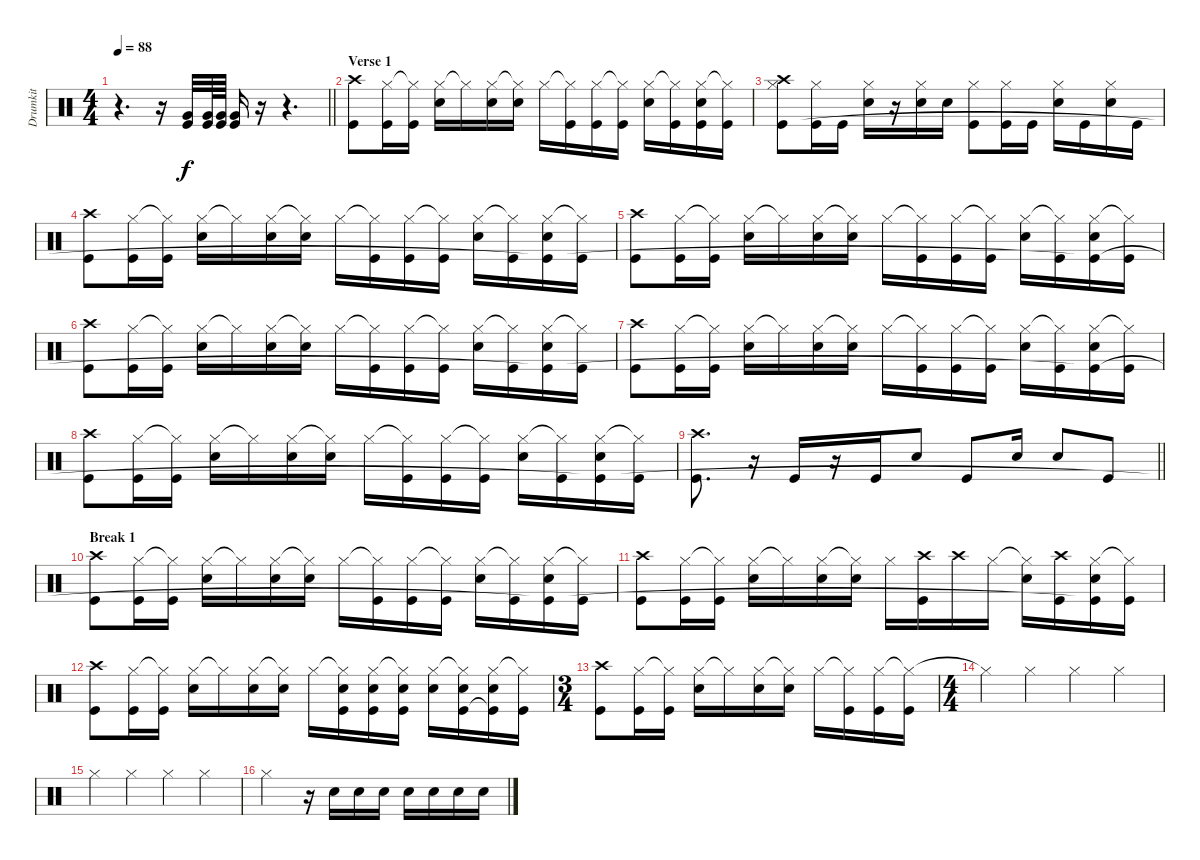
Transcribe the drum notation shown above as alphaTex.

\track ("Drumkit" "Drumkit") {instrument percussion}
\staff {score}
\articulation defaults
\ts (4 4)
\tempo 88
\clef neutral
\barLineRight lightlight
\ks c
r.4{d dy f} r.16 ("Very Low Tom (hit)" "Kick (hit)").32 ("Very Low Tom (hit)" "Kick (hit)").64 ("Very Low Tom (hit)" "Kick (hit)").64 ("Very Low Tom (hit)" "Kick (hit)").16 r.16 r.4{d} |
\section ("" "Verse 1")
("Crash high (hit)" "Kick (hit)").8 ("Hi-Hat (closed)" "Kick (hit)").16 ("Hi-Hat (closed)"{t} "Kick (hit)").16 ("Hi-Hat (closed)" "Snare (hit) 2").16 "Hi-Hat (closed)"{t}.16 ("Hi-Hat (closed)" "Snare (hit) 2").16 ("Hi-Hat (closed)"{t} "Snare (hit) 2").16 "Hi-Hat (closed)".16 ("Hi-Hat (closed)"{t} "Kick (hit)").16 ("Hi-Hat (closed)" "Kick (hit)").16 ("Hi-Hat (closed)"{t} "Kick (hit)").16 ("Hi-Hat (closed)" "Snare (hit) 2").16 ("Hi-Hat (closed)"{t} "Kick (hit)").16 ("Hi-Hat (closed)" "Snare (hit) 2" "Kick (hit)").16 ("Hi-Hat (closed)"{t} "Kick (hit)").16 |
("Hi-Hat (closed)" "Crash high (hit)" "Kick (hit)").8 ("Hi-Hat (closed)" "Kick (hit)").16 "Kick (hit)".16 ("Hi-Hat (closed)" "Snare (hit) 2").16 r.16 ("Hi-Hat (closed)" "Snare (hit) 2").16 "Snare (hit) 2".16 ("Hi-Hat (closed)" "Kick (hit)").8 ("Hi-Hat (closed)" "Kick (hit)").16 "Kick (hit)".16 ("Hi-Hat (closed)" "Snare (hit) 2").16 "Kick (hit)".16 ("Hi-Hat (closed)" "Snare (hit) 2").16 "Kick (hit)".16 |
("Crash high (hit)" "Kick (hit)").8 ("Hi-Hat (closed)" "Kick (hit)").16 ("Hi-Hat (closed)"{t} "Kick (hit)").16 ("Hi-Hat (closed)" "Snare (hit) 2").16 "Hi-Hat (closed)"{t}.16 ("Hi-Hat (closed)" "Snare (hit) 2").16 ("Hi-Hat (closed)"{t} "Snare (hit) 2").16 "Hi-Hat (closed)".16 ("Hi-Hat (closed)"{t} "Kick (hit)").16 ("Hi-Hat (closed)" "Kick (hit)").16 ("Hi-Hat (closed)"{t} "Kick (hit)").16 ("Hi-Hat (closed)" "Snare (hit) 2").16 ("Hi-Hat (closed)"{t} "Kick (hit)").16 ("Hi-Hat (closed)" "Snare (hit) 2" "Kick (hit)"{t}).16 ("Hi-Hat (closed)"{t} "Kick (hit)").16 |
("Crash high (hit)" "Kick (hit)").8 ("Hi-Hat (closed)" "Kick (hit)").16 ("Hi-Hat (closed)"{t} "Kick (hit)").16 ("Hi-Hat (closed)" "Snare (hit) 2").16 "Hi-Hat (closed)"{t}.16 ("Hi-Hat (closed)" "Snare (hit) 2").16 ("Hi-Hat (closed)"{t} "Snare (hit) 2").16 "Hi-Hat (closed)".16 ("Hi-Hat (closed)"{t} "Kick (hit)").16 ("Hi-Hat (closed)" "Kick (hit)").16 ("Hi-Hat (closed)"{t} "Kick (hit)").16 ("Hi-Hat (closed)" "Snare (hit) 2").16 ("Hi-Hat (closed)"{t} "Kick (hit)").16 ("Hi-Hat (closed)" "Snare (hit) 2" "Kick (hit)"{t}).16 ("Hi-Hat (closed)"{t} "Kick (hit)").16 |
("Crash high (hit)" "Kick (hit)").8 ("Hi-Hat (closed)" "Kick (hit)").16 ("Hi-Hat (closed)"{t} "Kick (hit)").16 ("Hi-Hat (closed)" "Snare (hit) 2").16 "Hi-Hat (closed)"{t}.16 ("Hi-Hat (closed)" "Snare (hit) 2").16 ("Hi-Hat (closed)"{t} "Snare (hit) 2").16 "Hi-Hat (closed)".16 ("Hi-Hat (closed)"{t} "Kick (hit)").16 ("Hi-Hat (closed)" "Kick (hit)").16 ("Hi-Hat (closed)"{t} "Kick (hit)").16 ("Hi-Hat (closed)" "Snare (hit) 2").16 ("Hi-Hat (closed)"{t} "Kick (hit)").16 ("Hi-Hat (closed)" "Snare (hit) 2" "Kick (hit)"{t}).16 ("Hi-Hat (closed)"{t} "Kick (hit)").16 |
("Crash high (hit)" "Kick (hit)").8 ("Hi-Hat (closed)" "Kick (hit)").16 ("Hi-Hat (closed)"{t} "Kick (hit)").16 ("Hi-Hat (closed)" "Snare (hit) 2").16 "Hi-Hat (closed)"{t}.16 ("Hi-Hat (closed)" "Snare (hit) 2").16 ("Hi-Hat (closed)"{t} "Snare (hit) 2").16 "Hi-Hat (closed)".16 ("Hi-Hat (closed)"{t} "Kick (hit)").16 ("Hi-Hat (closed)" "Kick (hit)").16 ("Hi-Hat (closed)"{t} "Kick (hit)").16 ("Hi-Hat (closed)" "Snare (hit) 2").16 ("Hi-Hat (closed)"{t} "Kick (hit)").16 ("Hi-Hat (closed)" "Snare (hit) 2" "Kick (hit)"{t}).16 ("Hi-Hat (closed)"{t} "Kick (hit)").16 |
("Crash high (hit)" "Kick (hit)").8 ("Hi-Hat (closed)" "Kick (hit)").16 ("Hi-Hat (closed)"{t} "Kick (hit)").16 ("Hi-Hat (closed)" "Snare (hit) 2").16 "Hi-Hat (closed)"{t}.16 ("Hi-Hat (closed)" "Snare (hit) 2").16 ("Hi-Hat (closed)"{t} "Snare (hit) 2").16 "Hi-Hat (closed)".16 ("Hi-Hat (closed)"{t} "Kick (hit)").16 ("Hi-Hat (closed)" "Kick (hit)").16 ("Hi-Hat (closed)"{t} "Kick (hit)").16 ("Hi-Hat (closed)" "Snare (hit) 2").16 ("Hi-Hat (closed)"{t} "Kick (hit)").16 ("Hi-Hat (closed)" "Snare (hit) 2" "Kick (hit)"{t}).16 ("Hi-Hat (closed)"{t} "Kick (hit)").16 |
\barLineRight lightlight
("Crash high (hit)" "Kick (hit)").8{d} r.16 "Kick (hit)".16 r.16 "Kick (hit)".16 "Snare (hit) 2".8 "Kick (hit)".8 "Snare (hit) 2".16 "Snare (hit) 2".8 "Kick (hit)".8 |
\section ("" "Break 1")
("Crash high (hit)" "Kick (hit)").8 ("Hi-Hat (closed)" "Kick (hit)").16 ("Hi-Hat (closed)"{t} "Kick (hit)").16 ("Hi-Hat (closed)" "Snare (hit) 2").16 "Hi-Hat (closed)"{t}.16 ("Hi-Hat (closed)" "Snare (hit) 2").16 ("Hi-Hat (closed)"{t} "Snare (hit) 2").16 "Hi-Hat (closed)".16 ("Hi-Hat (closed)"{t} "Kick (hit)").16 ("Hi-Hat (closed)" "Kick (hit)").16 ("Hi-Hat (closed)"{t} "Kick (hit)").16 ("Hi-Hat (closed)" "Snare (hit) 2").16 ("Hi-Hat (closed)"{t} "Kick (hit)").16 ("Hi-Hat (closed)" "Snare (hit) 2" "Kick (hit)"{t}).16 ("Hi-Hat (closed)"{t} "Kick (hit)").16 |
("Crash high (hit)" "Kick (hit)").8 ("Hi-Hat (closed)" "Kick (hit)").16 ("Hi-Hat (closed)"{t} "Kick (hit)").16 ("Hi-Hat (closed)" "Snare (hit) 2").16 "Hi-Hat (closed)"{t}.16 ("Hi-Hat (closed)" "Snare (hit) 2").16 ("Hi-Hat (closed)"{t} "Snare (hit) 2").16 "Hi-Hat (closed)".16 ("Crash high (hit)" "Kick (hit)").16 "Crash high (hit)".16 "Hi-Hat (closed)".16 ("Hi-Hat (closed)"{t} "Snare (hit) 2").16 ("Crash high (hit)" "Kick (hit)").16 ("Hi-Hat (closed)" "Snare (hit) 2" "Kick (hit)"{t}).16 ("Hi-Hat (closed)"{t} "Kick (hit)").16 |
("Crash high (hit)" "Kick (hit)").8 ("Hi-Hat (closed)" "Kick (hit)").16 ("Hi-Hat (closed)"{t} "Kick (hit)").16 ("Hi-Hat (closed)" "Snare (hit) 2").16 "Hi-Hat (closed)"{t}.16 ("Hi-Hat (closed)" "Snare (hit) 2").16 ("Hi-Hat (closed)"{t} "Snare (hit) 2").16 "Hi-Hat (closed)".16 ("Hi-Hat (closed)"{t} "Snare (hit) 2" "Kick (hit)").16 ("Hi-Hat (closed)" "Snare (hit) 2" "Kick (hit)").16 ("Hi-Hat (closed)"{t} "Snare (hit) 2" "Kick (hit)").16 ("Hi-Hat (closed)" "Snare (hit) 2").16 ("Hi-Hat (closed)"{t} "Snare (hit) 2" "Kick (hit)").16 ("Hi-Hat (closed)" "Snare (hit) 2" "Kick (hit)"{t}).16 ("Hi-Hat (closed)"{t} "Kick (hit)").16 |
\ts (3 4)
("Crash high (hit)" "Kick (hit)").8 ("Hi-Hat (closed)" "Kick (hit)").16 ("Hi-Hat (closed)"{t} "Kick (hit)").16 ("Hi-Hat (closed)" "Snare (hit) 2").16 "Hi-Hat (closed)"{t}.16 ("Hi-Hat (closed)" "Snare (hit) 2").16 ("Hi-Hat (closed)"{t} "Snare (hit) 2").16 "Hi-Hat (closed)".16 ("Hi-Hat (closed)"{t} "Kick (hit)").16 ("Hi-Hat (closed)" "Kick (hit)").16 ("Hi-Hat (closed)"{t} "Kick (hit)").16 |
\ts (4 4)
"Hi-Hat (closed)"{t}.4 "Hi-Hat (closed)".4 "Hi-Hat (closed)".4 "Hi-Hat (closed)".4 |
"Hi-Hat (closed)".4 "Hi-Hat (closed)".4 "Hi-Hat (closed)".4 "Hi-Hat (closed)".4 |
"Hi-Hat (closed)".2 r.16 "Snare (hit) 2".16 "Snare (hit) 2".16 "Snare (hit) 2".16 "Snare (hit) 2".16 "Snare (hit) 2".16 "Snare (hit) 2".16 "Snare (hit) 2".16
